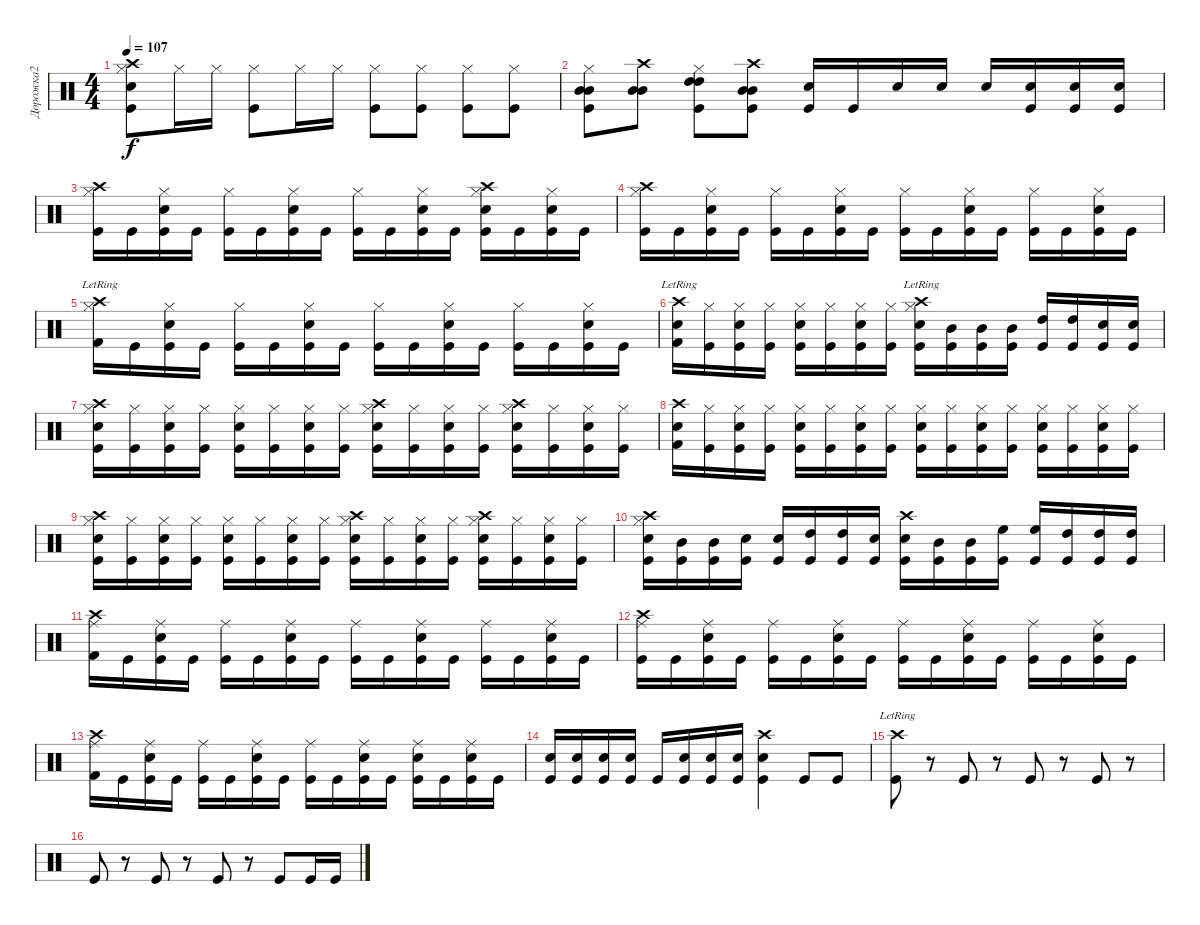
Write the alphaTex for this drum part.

\track ("Дорожка2" "Дорожка2") {instrument percussion}
\staff {score}
\articulation defaults
\ts (4 4)
\tempo 107
\clef neutral
\ks c
("Crash high (hit)" "Electric Snare (hit)" "Hi-Hat (closed)" "Kick (hit)").8{dy f} "Hi-Hat (closed)".16 "Hi-Hat (closed)".16 ("Hi-Hat (closed)" "Kick (hit)").8 "Hi-Hat (closed)".16 "Hi-Hat (closed)".16 ("Hi-Hat (closed)" "Kick (hit)").8 ("Hi-Hat (closed)" "Kick (hit)").8 ("Hi-Hat (closed)" "Kick (hit)").8 ("Hi-Hat (closed)" "Kick (hit)").8 |
("Hi-Hat (closed)" "Mid Tom (hit)" "Mid Tom (hit)" "Kick (hit)").8 ("Crash high (hit)" "Mid Tom (hit)" "Mid Tom (hit)").8 ("Hi-Hat (closed)" "High Tom (hit)" "High Tom (hit)" "Kick (hit)").8 ("Crash high (hit)" "Mid Tom (hit)" "Mid Tom (hit)" "Kick (hit)").8 ("Electric Snare (hit)" "Kick (hit)").16 "Kick (hit)".16 "Electric Snare (hit)".16 "Electric Snare (hit)".16 "Electric Snare (hit)".16 ("Electric Snare (hit)" "Kick (hit)").16 ("Electric Snare (hit)" "Kick (hit)").16 ("Electric Snare (hit)" "Kick (hit)").16 |
("Crash high (hit)" "Hi-Hat (closed)" "Kick (hit)").16 "Kick (hit)".16 ("Hi-Hat (closed)" "Electric Snare (hit)" "Kick (hit)").16 "Kick (hit)".16 ("Hi-Hat (closed)" "Kick (hit)").16 "Kick (hit)".16 ("Hi-Hat (closed)" "Electric Snare (hit)" "Kick (hit)").16 "Kick (hit)".16 ("Hi-Hat (closed)" "Kick (hit)").16 "Kick (hit)".16 ("Hi-Hat (closed)" "Electric Snare (hit)" "Kick (hit)").16 "Kick (hit)".16 ("Crash high (hit)" "Hi-Hat (closed)" "Electric Snare (hit)" "Kick (hit)").16 "Kick (hit)".16 ("Hi-Hat (closed)" "Electric Snare (hit)" "Kick (hit)").16 "Kick (hit)".16 |
("Crash high (hit)" "Hi-Hat (closed)" "Kick (hit)").16 "Kick (hit)".16 ("Hi-Hat (closed)" "Electric Snare (hit)" "Kick (hit)").16 "Kick (hit)".16 ("Hi-Hat (closed)" "Kick (hit)").16 "Kick (hit)".16 ("Hi-Hat (closed)" "Electric Snare (hit)" "Kick (hit)").16 "Kick (hit)".16 ("Hi-Hat (closed)" "Kick (hit)").16 "Kick (hit)".16 ("Hi-Hat (closed)" "Electric Snare (hit)" "Kick (hit)").16 "Kick (hit)".16 ("Hi-Hat (closed)" "Kick (hit)").16 "Kick (hit)".16 ("Hi-Hat (closed)" "Electric Snare (hit)" "Kick (hit)").16 "Kick (hit)".16 |
("Crash high (hit)"{lr} "Hi-Hat (closed)" "Kick (hit) 2").16 "Kick (hit)".16 ("Hi-Hat (closed)" "Electric Snare (hit)" "Kick (hit)").16 "Kick (hit)".16 ("Hi-Hat (closed)" "Kick (hit)").16 "Kick (hit)".16 ("Hi-Hat (closed)" "Electric Snare (hit)" "Kick (hit)").16 "Kick (hit)".16 ("Hi-Hat (closed)" "Kick (hit)").16 "Kick (hit)".16 ("Hi-Hat (closed)" "Electric Snare (hit)" "Kick (hit)").16 "Kick (hit)".16 ("Hi-Hat (closed)" "Kick (hit)").16 "Kick (hit)".16 ("Hi-Hat (closed)" "Electric Snare (hit)" "Kick (hit)").16 "Kick (hit)".16 |
("Crash high (hit)"{lr} "Electric Snare (hit)" "Kick (hit) 2").16 ("Hi-Hat (closed)" "Kick (hit)").16 ("Hi-Hat (closed)" "Electric Snare (hit)" "Kick (hit)").16 ("Hi-Hat (closed)" "Kick (hit)").16 ("Hi-Hat (closed)" "Electric Snare (hit)" "Kick (hit)").16 ("Hi-Hat (closed)" "Kick (hit)").16 ("Hi-Hat (closed)" "Electric Snare (hit)" "Kick (hit)").16 ("Hi-Hat (closed)" "Kick (hit)").16 ("Crash high (hit)"{lr} "Hi-Hat (closed)" "Electric Snare (hit)" "Kick (hit)").16 ("Mid Tom (hit)" "Kick (hit)").16 ("Mid Tom (hit)" "Kick (hit)").16 ("Mid Tom (hit)" "Kick (hit)").16 ("High Tom (hit)" "Kick (hit)").16 ("High Tom (hit)" "Kick (hit)").16 ("Electric Snare (hit)" "Kick (hit)").16 ("Electric Snare (hit)" "Kick (hit)").16 |
("Crash high (hit)" "Hi-Hat (closed)" "Electric Snare (hit)" "Kick (hit)").16 ("Hi-Hat (closed)" "Kick (hit)").16 ("Hi-Hat (closed)" "Electric Snare (hit)" "Kick (hit)").16 ("Hi-Hat (closed)" "Kick (hit)").16 ("Hi-Hat (closed)" "Electric Snare (hit)" "Kick (hit)").16 ("Hi-Hat (closed)" "Kick (hit)").16 ("Hi-Hat (closed)" "Electric Snare (hit)" "Kick (hit)").16 ("Hi-Hat (closed)" "Kick (hit)").16 ("Crash high (hit)" "Hi-Hat (closed)" "Electric Snare (hit)" "Kick (hit)").16 ("Hi-Hat (closed)" "Kick (hit)").16 ("Hi-Hat (closed)" "Electric Snare (hit)" "Kick (hit)").16 ("Hi-Hat (closed)" "Kick (hit)").16 ("Crash high (hit)" "Hi-Hat (closed)" "Electric Snare (hit)" "Kick (hit)").16 ("Hi-Hat (closed)" "Kick (hit)").16 ("Hi-Hat (closed)" "Electric Snare (hit)" "Kick (hit)").16 ("Hi-Hat (closed)" "Kick (hit)").16 |
("Crash high (hit)" "Electric Snare (hit)" "Kick (hit) 2").16 ("Hi-Hat (closed)" "Kick (hit)").16 ("Hi-Hat (closed)" "Electric Snare (hit)" "Kick (hit)").16 ("Hi-Hat (closed)" "Kick (hit)").16 ("Hi-Hat (closed)" "Electric Snare (hit)" "Kick (hit)").16 ("Hi-Hat (closed)" "Kick (hit)").16 ("Hi-Hat (closed)" "Electric Snare (hit)" "Kick (hit)").16 ("Hi-Hat (closed)" "Kick (hit)").16 ("Hi-Hat (closed)" "Electric Snare (hit)" "Kick (hit)").16 ("Hi-Hat (closed)" "Kick (hit)").16 ("Hi-Hat (closed)" "Electric Snare (hit)" "Kick (hit)").16 ("Hi-Hat (closed)" "Kick (hit)").16 ("Hi-Hat (closed)" "Electric Snare (hit)" "Kick (hit)").16 ("Hi-Hat (closed)" "Kick (hit)").16 ("Hi-Hat (closed)" "Electric Snare (hit)" "Kick (hit)").16 ("Hi-Hat (closed)" "Kick (hit)").16 |
("Crash high (hit)" "Hi-Hat (closed)" "Electric Snare (hit)" "Kick (hit)").16 ("Hi-Hat (closed)" "Kick (hit)").16 ("Hi-Hat (closed)" "Electric Snare (hit)" "Kick (hit)").16 ("Hi-Hat (closed)" "Kick (hit)").16 ("Hi-Hat (closed)" "Electric Snare (hit)" "Kick (hit)").16 ("Hi-Hat (closed)" "Kick (hit)").16 ("Hi-Hat (closed)" "Electric Snare (hit)" "Kick (hit)").16 ("Hi-Hat (closed)" "Kick (hit)").16 ("Crash high (hit)" "Hi-Hat (closed)" "Electric Snare (hit)" "Kick (hit)").16 ("Hi-Hat (closed)" "Kick (hit)").16 ("Hi-Hat (closed)" "Electric Snare (hit)" "Kick (hit)").16 ("Hi-Hat (closed)" "Kick (hit)").16 ("Crash high (hit)" "Hi-Hat (closed)" "Electric Snare (hit)" "Kick (hit)").16 ("Hi-Hat (closed)" "Kick (hit)").16 ("Hi-Hat (closed)" "Electric Snare (hit)" "Kick (hit)").16 ("Hi-Hat (closed)" "Kick (hit)").16 |
("Crash high (hit)" "Hi-Hat (closed)" "Electric Snare (hit)" "Kick (hit)").16 ("Mid Tom (hit)" "Kick (hit)").16 ("Mid Tom (hit)" "Kick (hit)").16 ("Electric Snare (hit)" "Kick (hit)").16 ("Electric Snare (hit)" "Kick (hit)").16 ("High Tom (hit)" "Kick (hit)").16 ("High Tom (hit)" "Kick (hit)").16 ("Electric Snare (hit)" "Kick (hit)").16 ("Crash high (hit)" "Electric Snare (hit)" "Kick (hit)").16 ("Mid Tom (hit)" "Kick (hit)").16 ("Mid Tom (hit)" "Kick (hit)").16 ("High Floor Tom (hit)" "Kick (hit)").16 ("High Floor Tom (hit)" "Kick (hit)").16 ("High Tom (hit)" "Kick (hit)").16 ("High Tom (hit)" "Kick (hit)").16 ("High Tom (hit)" "Kick (hit)").16 |
("Crash high (hit)" "Ride (middle)" "Kick (hit) 2").16 "Kick (hit)".16 ("Ride (middle)" "Electric Snare (hit)" "Kick (hit)").16 "Kick (hit)".16 ("Ride (middle)" "Kick (hit)").16 "Kick (hit)".16 ("Ride (middle)" "Electric Snare (hit)" "Kick (hit)").16 "Kick (hit)".16 ("Ride (middle)" "Kick (hit)").16 "Kick (hit)".16 ("Ride (middle)" "Electric Snare (hit)" "Kick (hit)").16 "Kick (hit)".16 ("Ride (middle)" "Kick (hit)").16 "Kick (hit)".16 ("Ride (middle)" "Electric Snare (hit)" "Kick (hit)").16 "Kick (hit)".16 |
("Crash high (hit)" "Ride (middle)" "Kick (hit)").16 "Kick (hit)".16 ("Ride (middle)" "Electric Snare (hit)" "Kick (hit)").16 "Kick (hit)".16 ("Ride (middle)" "Kick (hit)").16 "Kick (hit)".16 ("Ride (middle)" "Electric Snare (hit)" "Kick (hit)").16 "Kick (hit)".16 ("Ride (middle)" "Kick (hit)").16 "Kick (hit)".16 ("Ride (middle)" "Electric Snare (hit)" "Kick (hit)").16 "Kick (hit)".16 ("Ride (middle)" "Kick (hit)").16 "Kick (hit)".16 ("Ride (middle)" "Electric Snare (hit)" "Kick (hit)").16 "Kick (hit)".16 |
("Crash high (hit)" "Ride (middle)" "Kick (hit) 2").16 "Kick (hit)".16 ("Ride (middle)" "Electric Snare (hit)" "Kick (hit)").16 "Kick (hit)".16 ("Ride (middle)" "Kick (hit)").16 "Kick (hit)".16 ("Ride (middle)" "Electric Snare (hit)" "Kick (hit)").16 "Kick (hit)".16 ("Ride (middle)" "Kick (hit)").16 "Kick (hit)".16 ("Ride (middle)" "Electric Snare (hit)" "Kick (hit)").16 "Kick (hit)".16 ("Ride (middle)" "Electric Snare (hit)" "Kick (hit)").16 "Kick (hit)".16 ("Ride (middle)" "Electric Snare (hit)" "Kick (hit)").16 "Kick (hit)".16 |
("Electric Snare (hit)" "Kick (hit)").16 ("Electric Snare (hit)" "Kick (hit)").16 ("Electric Snare (hit)" "Kick (hit)").16 ("Electric Snare (hit)" "Kick (hit)").16 "Kick (hit)".16 ("Electric Snare (hit)" "Kick (hit)").16 ("Electric Snare (hit)" "Kick (hit)").16 ("Electric Snare (hit)" "Kick (hit)").16 ("Crash high (hit)" "Electric Snare (hit)" "Kick (hit)").4 "Kick (hit)".8 "Kick (hit)".8 |
("Crash high (hit)"{lr} "Kick (hit)").8 r.8 "Kick (hit)".8 r.8 "Kick (hit)".8 r.8 "Kick (hit)".8 r.8 |
"Kick (hit)".8 r.8 "Kick (hit)".8 r.8 "Kick (hit)".8 r.8 "Kick (hit)".8 "Kick (hit)".16 "Kick (hit)".16
